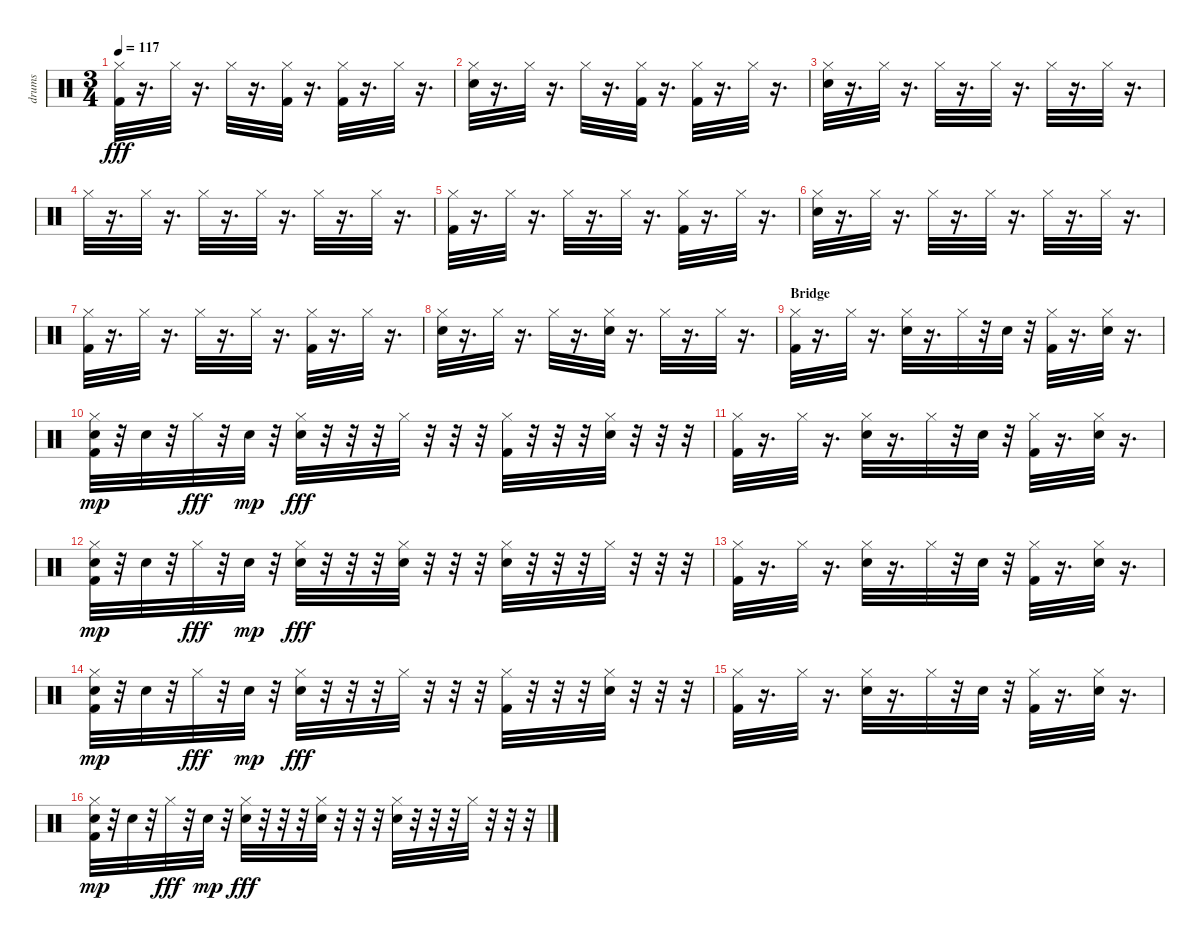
\track ("drums" "drums") {instrument percussion}
\staff {score}
\articulation defaults
\ts (3 4)
\tempo 117
\clef neutral
\ks c
("Kick (hit) 2" "Hi-Hat (closed)").32{dy fff} r.16{d} "Hi-Hat (closed)".32 r.16{d} "Hi-Hat (closed)".32 r.16{d} ("Hi-Hat (closed)" "Kick (hit) 2").32 r.16{d} ("Kick (hit) 2" "Hi-Hat (closed)").32 r.16{d} "Hi-Hat (closed)".32 r.16{d} |
("Electric Snare (hit)" "Hi-Hat (closed)").32 r.16{d} "Hi-Hat (closed)".32 r.16{d} "Hi-Hat (closed)".32 r.16{d} ("Hi-Hat (closed)" "Kick (hit) 2").32 r.16{d} ("Kick (hit) 2" "Hi-Hat (closed)").32 r.16{d} "Hi-Hat (closed)".32 r.16{d} |
("Hi-Hat (closed)" "Electric Snare (hit)").32 r.16{d} "Hi-Hat (closed)".32 r.16{d} "Hi-Hat (closed)".32 r.16{d} "Hi-Hat (closed)".32 r.16{d} "Hi-Hat (closed)".32 r.16{d} "Hi-Hat (closed)".32 r.16{d} |
"Hi-Hat (closed)".32 r.16{d} "Hi-Hat (closed)".32 r.16{d} "Hi-Hat (closed)".32 r.16{d} "Hi-Hat (closed)".32 r.16{d} "Hi-Hat (closed)".32 r.16{d} "Hi-Hat (closed)".32 r.16{d} |
("Hi-Hat (closed)" "Kick (hit) 2").32 r.16{d} "Hi-Hat (closed)".32 r.16{d} "Hi-Hat (closed)".32 r.16{d} "Hi-Hat (closed)".32 r.16{d} ("Kick (hit) 2" "Hi-Hat (closed)").32 r.16{d} "Hi-Hat (closed)".32 r.16{d} |
("Hi-Hat (closed)" "Electric Snare (hit)").32 r.16{d} "Hi-Hat (closed)".32 r.16{d} "Hi-Hat (closed)".32 r.16{d} "Hi-Hat (closed)".32 r.16{d} "Hi-Hat (closed)".32 r.16{d} "Hi-Hat (closed)".32 r.16{d} |
("Hi-Hat (closed)" "Kick (hit) 2").32 r.16{d} "Hi-Hat (closed)".32 r.16{d} "Hi-Hat (closed)".32 r.16{d} "Hi-Hat (closed)".32 r.16{d} ("Kick (hit) 2" "Hi-Hat (closed)").32 r.16{d} "Hi-Hat (closed)".32 r.16{d} |
("Hi-Hat (closed)" "Electric Snare (hit)").32 r.16{d} "Hi-Hat (closed)".32 r.16{d} "Hi-Hat (closed)".32 r.16{d} ("Hi-Hat (closed)" "Electric Snare (hit)").32 r.16{d} "Hi-Hat (closed)".32 r.16{d} "Hi-Hat (closed)".32 r.16{d} |
\section ("" "Bridge")
("Hi-Hat (closed)" "Kick (hit) 2").32 r.16{d} "Hi-Hat (closed)".32 r.16{d} ("Electric Snare (hit)" "Hi-Hat (closed)").32 r.16{d} "Hi-Hat (closed)".32 r.32 "Electric Snare (hit)".32 r.32 ("Hi-Hat (closed)" "Kick (hit) 2").32 r.16{d} ("Electric Snare (hit)" "Hi-Hat (closed)").32 r.16{d} |
("Hi-Hat (closed)" "Kick (hit) 2" "Electric Snare (hit)").32{dy mp} r.32 "Electric Snare (hit)".32 r.32 "Hi-Hat (closed)".32{dy fff} r.32 "Electric Snare (hit)".32{dy mp} r.32 ("Electric Snare (hit)" "Hi-Hat (closed)").32{dy fff} r.32 r.32 r.32 "Hi-Hat (closed)".32 r.32 r.32 r.32 ("Hi-Hat (closed)" "Kick (hit) 2").32 r.32 r.32 r.32 ("Electric Snare (hit)" "Hi-Hat (closed)").32 r.32 r.32 r.32 |
("Hi-Hat (closed)" "Kick (hit) 2").32 r.16{d} "Hi-Hat (closed)".32 r.16{d} ("Electric Snare (hit)" "Hi-Hat (closed)").32 r.16{d} "Hi-Hat (closed)".32 r.32 "Electric Snare (hit)".32 r.32 ("Hi-Hat (closed)" "Kick (hit) 2").32 r.16{d} ("Electric Snare (hit)" "Hi-Hat (closed)").32 r.16{d} |
("Hi-Hat (closed)" "Kick (hit) 2" "Electric Snare (hit)").32{dy mp} r.32 "Electric Snare (hit)".32 r.32 "Hi-Hat (closed)".32{dy fff} r.32 "Electric Snare (hit)".32{dy mp} r.32 ("Electric Snare (hit)" "Hi-Hat (closed)").32{dy fff} r.32 r.32 r.32 ("Hi-Hat (closed)" "Electric Snare (hit)").32 r.32 r.32 r.32 ("Hi-Hat (closed)" "Electric Snare (hit)").32 r.32 r.32 r.32 "Hi-Hat (closed)".32 r.32 r.32 r.32 |
("Hi-Hat (closed)" "Kick (hit) 2").32 r.16{d} "Hi-Hat (closed)".32 r.16{d} ("Electric Snare (hit)" "Hi-Hat (closed)").32 r.16{d} "Hi-Hat (closed)".32 r.32 "Electric Snare (hit)".32 r.32 ("Hi-Hat (closed)" "Kick (hit) 2").32 r.16{d} ("Electric Snare (hit)" "Hi-Hat (closed)").32 r.16{d} |
("Hi-Hat (closed)" "Kick (hit) 2" "Electric Snare (hit)").32{dy mp} r.32 "Electric Snare (hit)".32 r.32 "Hi-Hat (closed)".32{dy fff} r.32 "Electric Snare (hit)".32{dy mp} r.32 ("Electric Snare (hit)" "Hi-Hat (closed)").32{dy fff} r.32 r.32 r.32 "Hi-Hat (closed)".32 r.32 r.32 r.32 ("Hi-Hat (closed)" "Kick (hit) 2").32 r.32 r.32 r.32 ("Electric Snare (hit)" "Hi-Hat (closed)").32 r.32 r.32 r.32 |
("Hi-Hat (closed)" "Kick (hit) 2").32 r.16{d} "Hi-Hat (closed)".32 r.16{d} ("Electric Snare (hit)" "Hi-Hat (closed)").32 r.16{d} "Hi-Hat (closed)".32 r.32 "Electric Snare (hit)".32 r.32 ("Hi-Hat (closed)" "Kick (hit) 2").32 r.16{d} ("Electric Snare (hit)" "Hi-Hat (closed)").32 r.16{d} |
("Hi-Hat (closed)" "Kick (hit) 2" "Electric Snare (hit)").32{dy mp} r.32 "Electric Snare (hit)".32 r.32 "Hi-Hat (closed)".32{dy fff} r.32 "Electric Snare (hit)".32{dy mp} r.32 ("Electric Snare (hit)" "Hi-Hat (closed)").32{dy fff} r.32 r.32 r.32 ("Hi-Hat (closed)" "Electric Snare (hit)").32 r.32 r.32 r.32 ("Hi-Hat (closed)" "Electric Snare (hit)").32 r.32 r.32 r.32 "Hi-Hat (closed)".32 r.32 r.32 r.32
